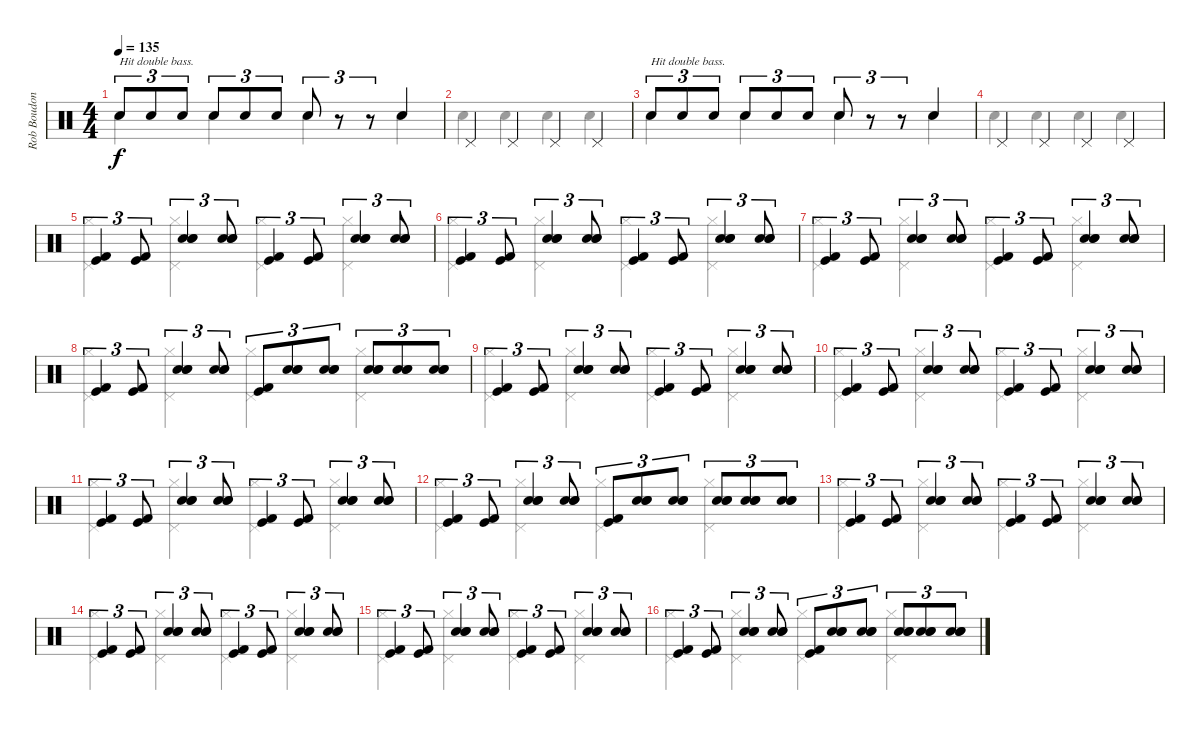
\track ("Rob Boudon [Drums]" "Rob Boudon") {instrument percussion}
\staff {score}
\articulation defaults
\voice
\ts (4 4)
\tempo 135
\clef neutral
\ks c "Snare (hit) 2".8{tu (3 2) txt "Hit double bass." dy f} "Snare (hit) 2".8{tu (3 2)} "Snare (hit) 2".8{tu (3 2)} "Snare (hit) 2".8{tu (3 2)} "Snare (hit) 2".8{tu (3 2)} "Snare (hit) 2".8{tu (3 2)} "Snare (hit) 2".8{tu (3 2)}
r.8{tu (3 2)} r.8{tu (3 2)} "Hand Clap (hit)".4 |
"Pedal Hi-Hat (hit)".4 "Pedal Hi-Hat (hit)".4 "Pedal Hi-Hat (hit)".4 "Pedal Hi-Hat (hit)".4 |
"Snare (hit) 2".8{tu (3 2) txt "Hit double bass."} "Snare (hit) 2".8{tu (3 2)} "Snare (hit) 2".8{tu (3 2)} "Snare (hit) 2".8{tu (3 2)} "Snare (hit) 2".8{tu (3 2)} "Snare (hit) 2".8{tu (3 2)} "Snare (hit) 2".8{tu (3 2)} r.8{tu (3 2)} r.8{tu (3 2)} "Hand Clap (hit)".4 |
"Pedal Hi-Hat (hit)".4 "Pedal Hi-Hat (hit)".4 "Pedal Hi-Hat (hit)".4 "Pedal Hi-Hat (hit)".4 |
("Kick (hit) 2" "Kick (hit)").4{tu (3 2)} ("Kick (hit) 2" "Kick (hit)").8{tu (3 2)} ("Hand Clap (hit)" "Snare (hit) 2" "Electric Snare (hit)").4{tu (3 2)} ("Hand Clap (hit)" "Snare (hit) 2" "Electric Snare (hit)").8{tu (3 2)} ("Kick (hit) 2" "Kick (hit)").4{tu (3 2)} ("Kick (hit) 2" "Kick (hit)").8{tu (3 2)} ("Hand Clap (hit)" "Snare (hit) 2" "Electric Snare (hit)").4{tu (3 2)} ("Hand Clap (hit)" "Snare (hit) 2" "Electric Snare (hit)").8{tu (3 2)} |
("Kick (hit) 2" "Kick (hit)").4{tu (3 2)} ("Kick (hit) 2" "Kick (hit)").8{tu (3 2)} ("Hand Clap (hit)" "Snare (hit) 2" "Electric Snare (hit)").4{tu (3 2)} ("Hand Clap (hit)" "Snare (hit) 2" "Electric Snare (hit)").8{tu (3 2)} ("Kick (hit) 2" "Kick (hit)").4{tu (3 2)} ("Kick (hit) 2" "Kick (hit)").8{tu (3 2)} ("Hand Clap (hit)" "Snare (hit) 2" "Electric Snare (hit)").4{tu (3 2)} ("Hand Clap (hit)" "Snare (hit) 2" "Electric Snare (hit)").8{tu (3 2)} |
("Kick (hit) 2" "Kick (hit)").4{tu (3 2)} ("Kick (hit) 2" "Kick (hit)").8{tu (3 2)} ("Hand Clap (hit)" "Snare (hit) 2" "Electric Snare (hit)").4{tu (3 2)} ("Hand Clap (hit)" "Snare (hit) 2" "Electric Snare (hit)").8{tu (3 2)} ("Kick (hit) 2" "Kick (hit)").4{tu (3 2)} ("Kick (hit) 2" "Kick (hit)").8{tu (3 2)} ("Hand Clap (hit)" "Snare (hit) 2" "Electric Snare (hit)").4{tu (3 2)} ("Hand Clap (hit)" "Snare (hit) 2" "Electric Snare (hit)").8{tu (3 2)} |
("Kick (hit) 2" "Kick (hit)").4{tu (3 2)} ("Kick (hit) 2" "Kick (hit)").8{tu (3 2)} ("Hand Clap (hit)" "Snare (hit) 2" "Electric Snare (hit)").4{tu (3 2)} ("Hand Clap (hit)" "Snare (hit) 2" "Electric Snare (hit)").8{tu (3 2)} ("Kick (hit) 2" "Kick (hit)").8{tu (3 2)} ("Hand Clap (hit)" "Snare (hit) 2" "Electric Snare (hit)").8{tu (3 2)} ("Hand Clap (hit)" "Snare (hit) 2" "Electric Snare (hit)").8{tu (3 2)} ("Hand Clap (hit)" "Snare (hit) 2" "Electric Snare (hit)").8{tu (3 2)} ("Hand Clap (hit)" "Snare (hit) 2" "Electric Snare (hit)").8{tu (3 2)} ("Hand Clap (hit)" "Snare (hit) 2" "Electric Snare (hit)").8{tu (3 2)} |
("Kick (hit) 2" "Kick (hit)").4{tu (3 2)} ("Kick (hit) 2" "Kick (hit)").8{tu (3 2)} ("Hand Clap (hit)" "Snare (hit) 2" "Electric Snare (hit)").4{tu (3 2)} ("Hand Clap (hit)" "Snare (hit) 2" "Electric Snare (hit)").8{tu (3 2)} ("Kick (hit) 2" "Kick (hit)").4{tu (3 2)} ("Kick (hit) 2" "Kick (hit)").8{tu (3 2)} ("Hand Clap (hit)" "Snare (hit) 2" "Electric Snare (hit)").4{tu (3 2)} ("Hand Clap (hit)" "Snare (hit) 2" "Electric Snare (hit)").8{tu (3 2)} |
("Kick (hit) 2" "Kick (hit)").4{tu (3 2)} ("Kick (hit) 2" "Kick (hit)").8{tu (3 2)} ("Hand Clap (hit)" "Snare (hit) 2" "Electric Snare (hit)").4{tu (3 2)} ("Hand Clap (hit)" "Snare (hit) 2" "Electric Snare (hit)").8{tu (3 2)} ("Kick (hit) 2" "Kick (hit)").4{tu (3 2)} ("Kick (hit) 2" "Kick (hit)").8{tu (3 2)} ("Hand Clap (hit)" "Snare (hit) 2" "Electric Snare (hit)").4{tu (3 2)} ("Hand Clap (hit)" "Snare (hit) 2" "Electric Snare (hit)").8{tu (3 2)} |
("Kick (hit) 2" "Kick (hit)").4{tu (3 2)} ("Kick (hit) 2" "Kick (hit)").8{tu (3 2)} ("Hand Clap (hit)" "Snare (hit) 2" "Electric Snare (hit)").4{tu (3 2)} ("Hand Clap (hit)" "Snare (hit) 2" "Electric Snare (hit)").8{tu (3 2)} ("Kick (hit) 2" "Kick (hit)").4{tu (3 2)} ("Kick (hit) 2" "Kick (hit)").8{tu (3 2)} ("Hand Clap (hit)" "Snare (hit) 2" "Electric Snare (hit)").4{tu (3 2)} ("Hand Clap (hit)" "Snare (hit) 2" "Electric Snare (hit)").8{tu (3 2)} |
("Kick (hit) 2" "Kick (hit)").4{tu (3 2)} ("Kick (hit) 2" "Kick (hit)").8{tu (3 2)} ("Hand Clap (hit)" "Snare (hit) 2" "Electric Snare (hit)").4{tu (3 2)} ("Hand Clap (hit)" "Snare (hit) 2" "Electric Snare (hit)").8{tu (3 2)} ("Kick (hit) 2" "Kick (hit)").8{tu (3 2)} ("Hand Clap (hit)" "Snare (hit) 2" "Electric Snare (hit)").8{tu (3 2)} ("Hand Clap (hit)" "Snare (hit) 2" "Electric Snare (hit)").8{tu (3 2)} ("Hand Clap (hit)" "Snare (hit) 2" "Electric Snare (hit)").8{tu (3 2)} ("Hand Clap (hit)" "Snare (hit) 2" "Electric Snare (hit)").8{tu (3 2)} ("Hand Clap (hit)" "Snare (hit) 2" "Electric Snare (hit)").8{tu (3 2)} |
("Kick (hit) 2" "Kick (hit)").4{tu (3 2)} ("Kick (hit) 2" "Kick (hit)").8{tu (3 2)} ("Hand Clap (hit)" "Snare (hit) 2" "Electric Snare (hit)").4{tu (3 2)} ("Hand Clap (hit)" "Snare (hit) 2" "Electric Snare (hit)").8{tu (3 2)} ("Kick (hit) 2" "Kick (hit)").4{tu (3 2)} ("Kick (hit) 2" "Kick (hit)").8{tu (3 2)} ("Hand Clap (hit)" "Snare (hit) 2" "Electric Snare (hit)").4{tu (3 2)} ("Hand Clap (hit)" "Snare (hit) 2" "Electric Snare (hit)").8{tu (3 2)} |
("Kick (hit) 2" "Kick (hit)").4{tu (3 2)} ("Kick (hit) 2" "Kick (hit)").8{tu (3 2)} ("Hand Clap (hit)" "Snare (hit) 2" "Electric Snare (hit)").4{tu (3 2)} ("Hand Clap (hit)" "Snare (hit) 2" "Electric Snare (hit)").8{tu (3 2)} ("Kick (hit) 2" "Kick (hit)").4{tu (3 2)} ("Kick (hit) 2" "Kick (hit)").8{tu (3 2)} ("Hand Clap (hit)" "Snare (hit) 2" "Electric Snare (hit)").4{tu (3 2)} ("Hand Clap (hit)" "Snare (hit) 2" "Electric Snare (hit)").8{tu (3 2)} |
("Kick (hit) 2" "Kick (hit)").4{tu (3 2)} ("Kick (hit) 2" "Kick (hit)").8{tu (3 2)} ("Hand Clap (hit)" "Snare (hit) 2" "Electric Snare (hit)").4{tu (3 2)} ("Hand Clap (hit)" "Snare (hit) 2" "Electric Snare (hit)").8{tu (3 2)} ("Kick (hit) 2" "Kick (hit)").4{tu (3 2)} ("Kick (hit) 2" "Kick (hit)").8{tu (3 2)} ("Hand Clap (hit)" "Snare (hit) 2" "Electric Snare (hit)").4{tu (3 2)} ("Hand Clap (hit)" "Snare (hit) 2" "Electric Snare (hit)").8{tu (3 2)} |
("Kick (hit) 2" "Kick (hit)").4{tu (3 2)} ("Kick (hit) 2" "Kick (hit)").8{tu (3 2)} ("Hand Clap (hit)" "Snare (hit) 2" "Electric Snare (hit)").4{tu (3 2)} ("Hand Clap (hit)" "Snare (hit) 2" "Electric Snare (hit)").8{tu (3 2)} ("Kick (hit) 2" "Kick (hit)").8{tu (3 2)} ("Hand Clap (hit)" "Snare (hit) 2" "Electric Snare (hit)").8{tu (3 2)} ("Hand Clap (hit)" "Snare (hit) 2" "Electric Snare (hit)").8{tu (3 2)} ("Hand Clap (hit)" "Snare (hit) 2" "Electric Snare (hit)").8{tu (3 2)} ("Hand Clap (hit)" "Snare (hit) 2" "Electric Snare (hit)").8{tu (3 2)} ("Hand Clap (hit)" "Snare (hit) 2" "Electric Snare (hit)").8{tu (3 2)}
\voice
\clef neutral
\ottava regular
\simile none
\ks c "Hand Clap (hit)".4{dy f} "Hand Clap (hit)".4 "Hand Clap (hit)".4 "Hand Clap (hit)".4
|
"Hand Clap (hit)".4 "Hand Clap (hit)".4 "Hand Clap (hit)".4 "Hand Clap (hit)".4 |
"Hand Clap (hit)".4 "Hand Clap (hit)".4 "Hand Clap (hit)".4 "Hand Clap (hit)".4 |
"Hand Clap (hit)".4 "Hand Clap (hit)".4 "Hand Clap (hit)".4 "Hand Clap (hit)".4 |
("Hi-Hat (closed)" "Pedal Hi-Hat (hit)").4 ("Hi-Hat (closed)" "Pedal Hi-Hat (hit)").4 ("Hi-Hat (closed)" "Pedal Hi-Hat (hit)").4 ("Hi-Hat (closed)" "Pedal Hi-Hat (hit)").4 |
("Hi-Hat (closed)" "Pedal Hi-Hat (hit)").4 ("Hi-Hat (closed)" "Pedal Hi-Hat (hit)").4 ("Hi-Hat (closed)" "Pedal Hi-Hat (hit)").4 ("Hi-Hat (closed)" "Pedal Hi-Hat (hit)").4 |
("Hi-Hat (closed)" "Pedal Hi-Hat (hit)").4 ("Hi-Hat (closed)" "Pedal Hi-Hat (hit)").4 ("Hi-Hat (closed)" "Pedal Hi-Hat (hit)").4 ("Hi-Hat (closed)" "Pedal Hi-Hat (hit)").4 |
("Hi-Hat (closed)" "Pedal Hi-Hat (hit)").4 ("Hi-Hat (closed)" "Pedal Hi-Hat (hit)").4 ("Hi-Hat (closed)" "Pedal Hi-Hat (hit)").4 ("Hi-Hat (closed)" "Pedal Hi-Hat (hit)").4 |
("Hi-Hat (closed)" "Pedal Hi-Hat (hit)").4 ("Hi-Hat (closed)" "Pedal Hi-Hat (hit)").4 ("Hi-Hat (closed)" "Pedal Hi-Hat (hit)").4 ("Hi-Hat (closed)" "Pedal Hi-Hat (hit)").4 |
("Hi-Hat (closed)" "Pedal Hi-Hat (hit)").4 ("Hi-Hat (closed)" "Pedal Hi-Hat (hit)").4 ("Hi-Hat (closed)" "Pedal Hi-Hat (hit)").4 ("Hi-Hat (closed)" "Pedal Hi-Hat (hit)").4 |
("Hi-Hat (closed)" "Pedal Hi-Hat (hit)").4 ("Hi-Hat (closed)" "Pedal Hi-Hat (hit)").4 ("Hi-Hat (closed)" "Pedal Hi-Hat (hit)").4 ("Hi-Hat (closed)" "Pedal Hi-Hat (hit)").4 |
("Hi-Hat (closed)" "Pedal Hi-Hat (hit)").4 ("Hi-Hat (closed)" "Pedal Hi-Hat (hit)").4 ("Hi-Hat (closed)" "Pedal Hi-Hat (hit)").4 ("Hi-Hat (closed)" "Pedal Hi-Hat (hit)").4 |
("Hi-Hat (closed)" "Pedal Hi-Hat (hit)").4 ("Hi-Hat (closed)" "Pedal Hi-Hat (hit)").4 ("Hi-Hat (closed)" "Pedal Hi-Hat (hit)").4 ("Hi-Hat (closed)" "Pedal Hi-Hat (hit)").4 |
("Hi-Hat (closed)" "Pedal Hi-Hat (hit)").4 ("Hi-Hat (closed)" "Pedal Hi-Hat (hit)").4 ("Hi-Hat (closed)" "Pedal Hi-Hat (hit)").4 ("Hi-Hat (closed)" "Pedal Hi-Hat (hit)").4 |
("Hi-Hat (closed)" "Pedal Hi-Hat (hit)").4 ("Hi-Hat (closed)" "Pedal Hi-Hat (hit)").4 ("Hi-Hat (closed)" "Pedal Hi-Hat (hit)").4 ("Hi-Hat (closed)" "Pedal Hi-Hat (hit)").4 |
("Hi-Hat (closed)" "Pedal Hi-Hat (hit)").4 ("Hi-Hat (closed)" "Pedal Hi-Hat (hit)").4 ("Hi-Hat (closed)" "Pedal Hi-Hat (hit)").4 ("Hi-Hat (closed)" "Pedal Hi-Hat (hit)").4
